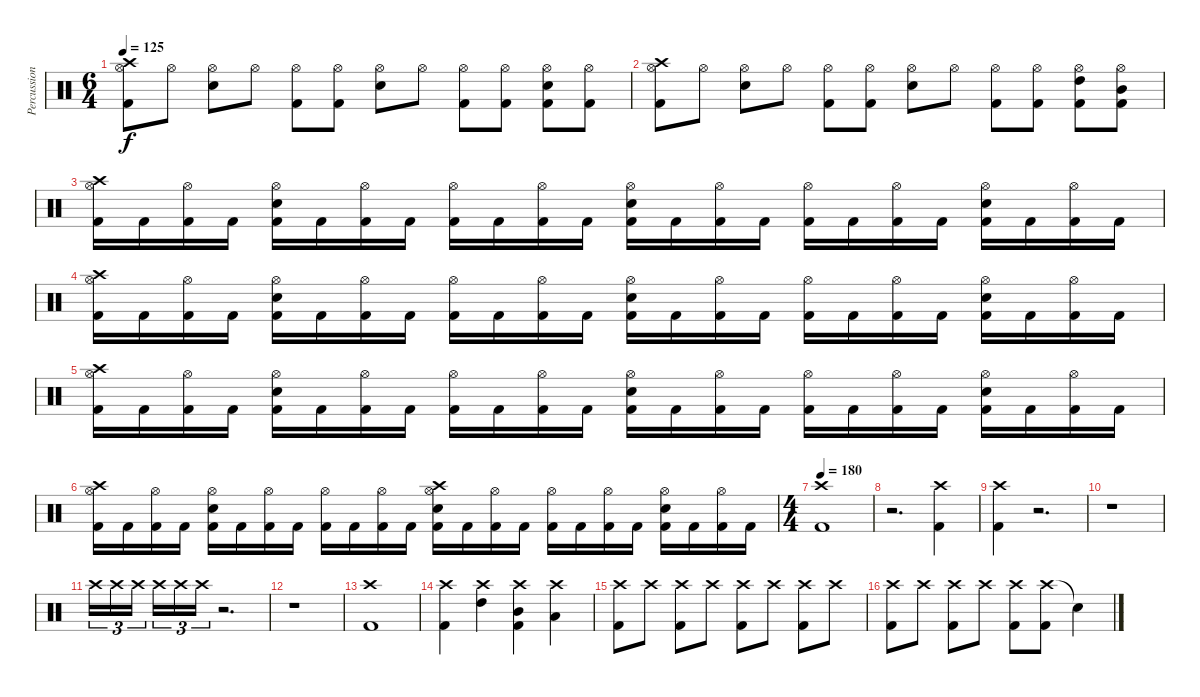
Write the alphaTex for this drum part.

\track ("Percussion" "Percussion") {instrument percussion}
\staff {score}
\articulation defaults
\ts (6 4)
\tempo 125
\clef neutral
\ks c
("Crash high (hit)" "Hi-Hat (open)" "Kick (hit) 2").8{dy f} "Hi-Hat (open)".8 ("Hi-Hat (open)" "Snare (hit) 2").8 "Hi-Hat (open)".8 ("Hi-Hat (open)" "Kick (hit) 2").8 ("Hi-Hat (open)" "Kick (hit) 2").8 ("Hi-Hat (open)" "Snare (hit) 2").8 "Hi-Hat (open)".8 ("Hi-Hat (open)" "Kick (hit) 2").8 ("Hi-Hat (open)" "Kick (hit) 2").8 ("Hi-Hat (open)" "Snare (hit) 2" "Kick (hit) 2").8 ("Hi-Hat (open)" "Kick (hit) 2").8 |
("Crash high (hit)" "Hi-Hat (open)" "Kick (hit) 2").8 "Hi-Hat (open)".8 ("Hi-Hat (open)" "Snare (hit) 2").8 "Hi-Hat (open)".8 ("Hi-Hat (open)" "Kick (hit) 2").8 ("Hi-Hat (open)" "Kick (hit) 2").8 ("Hi-Hat (open)" "Snare (hit) 2").8 "Hi-Hat (open)".8 ("Hi-Hat (open)" "Kick (hit) 2").8 ("Hi-Hat (open)" "Kick (hit) 2").8 ("Hi-Hat (open)" "High Tom (hit)" "Kick (hit) 2").8 ("Hi-Hat (open)" "Mid Tom (hit)" "Kick (hit) 2").8 |
("Crash high (hit)" "Hi-Hat (open)" "Kick (hit) 2").16 "Kick (hit) 2".16 ("Hi-Hat (open)" "Kick (hit) 2").16 "Kick (hit) 2".16 ("Hi-Hat (open)" "Snare (hit) 2" "Kick (hit) 2").16 "Kick (hit) 2".16 ("Hi-Hat (open)" "Kick (hit) 2").16 "Kick (hit) 2".16 ("Hi-Hat (open)" "Kick (hit) 2").16 "Kick (hit) 2".16 ("Hi-Hat (open)" "Kick (hit) 2").16 "Kick (hit) 2".16 ("Hi-Hat (open)" "Snare (hit) 2" "Kick (hit) 2").16 "Kick (hit) 2".16 ("Hi-Hat (open)" "Kick (hit) 2").16 "Kick (hit) 2".16 ("Hi-Hat (open)" "Kick (hit) 2").16 "Kick (hit) 2".16 ("Hi-Hat (open)" "Kick (hit) 2").16 "Kick (hit) 2".16 ("Hi-Hat (open)" "Snare (hit) 2" "Kick (hit) 2").16 "Kick (hit) 2".16 ("Hi-Hat (open)" "Kick (hit) 2").16 "Kick (hit) 2".16 |
("Crash high (hit)" "Hi-Hat (open)" "Kick (hit) 2").16 "Kick (hit) 2".16 ("Hi-Hat (open)" "Kick (hit) 2").16 "Kick (hit) 2".16 ("Hi-Hat (open)" "Snare (hit) 2" "Kick (hit) 2").16 "Kick (hit) 2".16 ("Hi-Hat (open)" "Kick (hit) 2").16 "Kick (hit) 2".16 ("Hi-Hat (open)" "Kick (hit) 2").16 "Kick (hit) 2".16 ("Hi-Hat (open)" "Kick (hit) 2").16 "Kick (hit) 2".16 ("Hi-Hat (open)" "Snare (hit) 2" "Kick (hit) 2").16 "Kick (hit) 2".16 ("Hi-Hat (open)" "Kick (hit) 2").16 "Kick (hit) 2".16 ("Hi-Hat (open)" "Kick (hit) 2").16 "Kick (hit) 2".16 ("Hi-Hat (open)" "Kick (hit) 2").16 "Kick (hit) 2".16 ("Hi-Hat (open)" "Snare (hit) 2" "Kick (hit) 2").16 "Kick (hit) 2".16 ("Hi-Hat (open)" "Kick (hit) 2").16 "Kick (hit) 2".16 |
("Crash high (hit)" "Hi-Hat (open)" "Kick (hit) 2").16 "Kick (hit) 2".16 ("Hi-Hat (open)" "Kick (hit) 2").16 "Kick (hit) 2".16 ("Hi-Hat (open)" "Snare (hit) 2" "Kick (hit) 2").16 "Kick (hit) 2".16 ("Hi-Hat (open)" "Kick (hit) 2").16 "Kick (hit) 2".16 ("Hi-Hat (open)" "Kick (hit) 2").16 "Kick (hit) 2".16 ("Hi-Hat (open)" "Kick (hit) 2").16 "Kick (hit) 2".16 ("Hi-Hat (open)" "Snare (hit) 2" "Kick (hit) 2").16 "Kick (hit) 2".16 ("Hi-Hat (open)" "Kick (hit) 2").16 "Kick (hit) 2".16 ("Hi-Hat (open)" "Kick (hit) 2").16 "Kick (hit) 2".16 ("Hi-Hat (open)" "Kick (hit) 2").16 "Kick (hit) 2".16 ("Hi-Hat (open)" "Snare (hit) 2" "Kick (hit) 2").16 "Kick (hit) 2".16 ("Hi-Hat (open)" "Kick (hit) 2").16 "Kick (hit) 2".16 |
("Crash high (hit)" "Hi-Hat (open)" "Kick (hit) 2").16 "Kick (hit) 2".16 ("Hi-Hat (open)" "Kick (hit) 2").16 "Kick (hit) 2".16 ("Hi-Hat (open)" "Snare (hit) 2" "Kick (hit) 2").16 "Kick (hit) 2".16 ("Hi-Hat (open)" "Kick (hit) 2").16 "Kick (hit) 2".16 ("Hi-Hat (open)" "Kick (hit) 2").16 "Kick (hit) 2".16 ("Hi-Hat (open)" "Kick (hit) 2").16 "Kick (hit) 2".16 ("Crash high (hit)" "Hi-Hat (open)" "Snare (hit) 2" "Kick (hit) 2").16 "Kick (hit) 2".16 ("Hi-Hat (open)" "Kick (hit) 2").16 "Kick (hit) 2".16 ("Hi-Hat (open)" "Kick (hit) 2").16 "Kick (hit) 2".16 ("Hi-Hat (open)" "Kick (hit) 2").16 "Kick (hit) 2".16 ("Hi-Hat (open)" "Snare (hit) 2" "Kick (hit) 2").16 "Kick (hit) 2".16 ("Hi-Hat (open)" "Kick (hit) 2").16 "Kick (hit) 2".16 |
\ts (4 4)
\tempo 180
("Crash high (hit)" "Kick (hit) 2").1 |
r.2{d} ("Crash high (hit)" "Kick (hit) 2").4 |
("Crash high (hit)" "Kick (hit) 2").4 r.2{d} |
r.1 |
"Crash high (hit)".16{tu (3 2)} "Crash high (hit)".16{tu (3 2)} "Crash high (hit)".16{tu (3 2)} "Crash high (hit)".16{tu (3 2)} "Crash high (hit)".16{tu (3 2)} "Crash high (hit)".16{tu (3 2)} r.2{d} |
r.1 |
("Crash high (hit)" "Kick (hit) 2").1 |
("Crash high (hit)" "Kick (hit) 2").4 ("Crash high (hit)" "High Tom (hit)").4 ("Crash high (hit)" "Mid Tom (hit)" "Kick (hit) 2").4 ("Crash high (hit)" "Low Tom (hit)").4 |
("Crash high (hit)" "Kick (hit) 2").8 "Crash high (hit)".8 ("Crash high (hit)" "Kick (hit) 2").8 "Crash high (hit)".8 ("Crash high (hit)" "Kick (hit) 2").8 "Crash high (hit)".8 ("Crash high (hit)" "Kick (hit) 2").8 "Crash high (hit)".8 |
("Crash high (hit)" "Kick (hit) 2").8 "Crash high (hit)".8 ("Crash high (hit)" "Kick (hit) 2").8 "Crash high (hit)".8 ("Crash high (hit)" "Kick (hit) 2").8 ("Crash high (hit)" "Kick (hit) 2").8 "Snare (hit)"{t}.4
